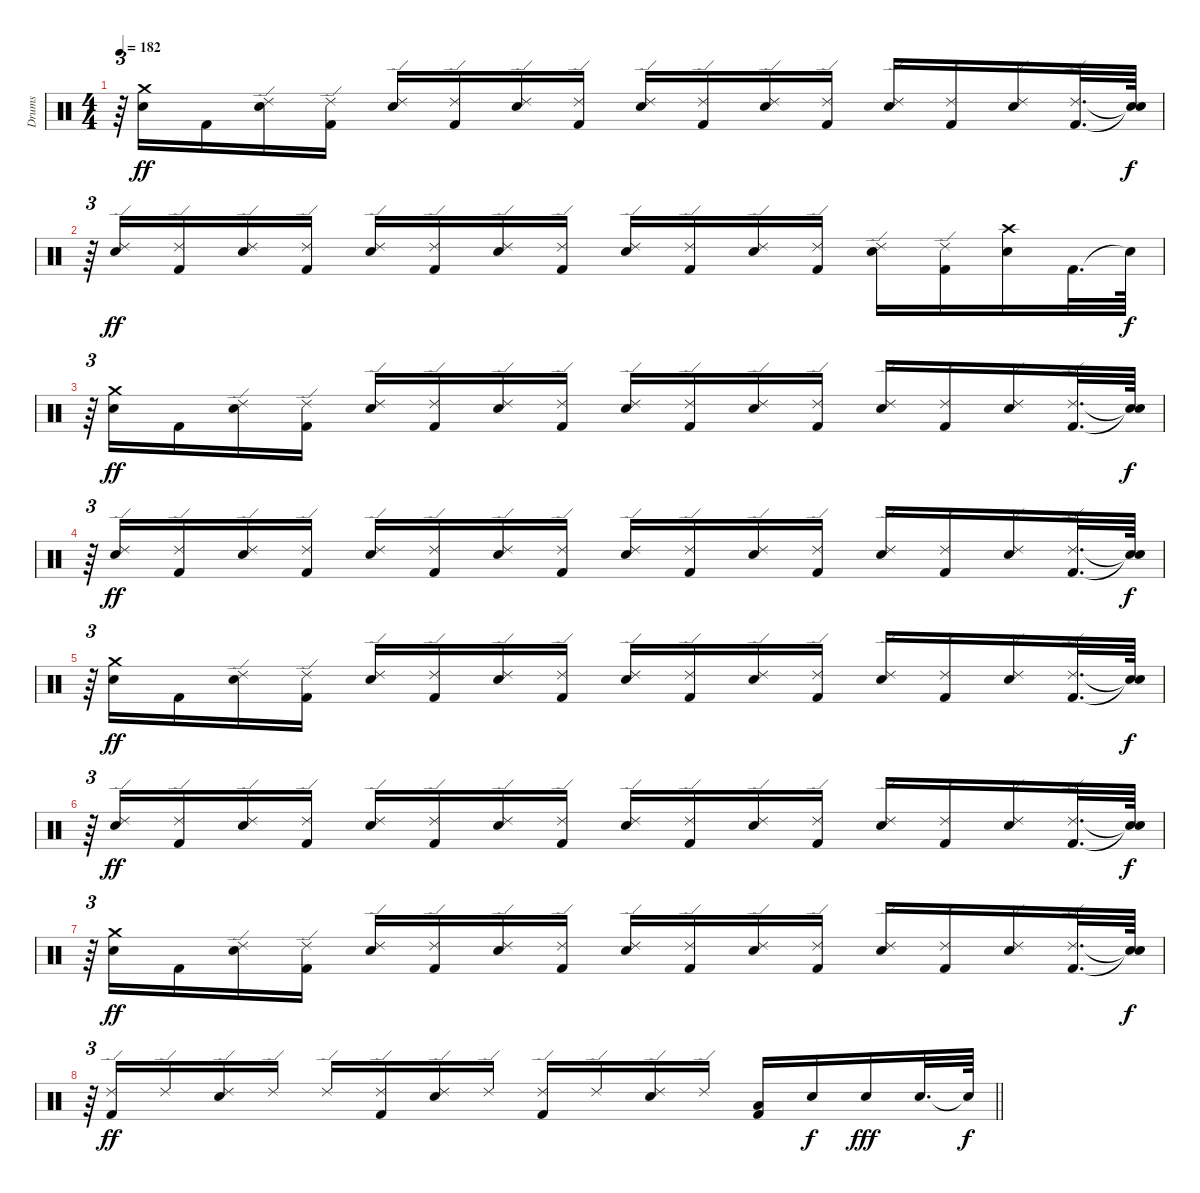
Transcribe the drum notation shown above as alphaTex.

\track ("Drums" "Drums") {instrument percussion}
\staff {score}
\articulation defaults
\ts (4 4)
\tempo 182
\clef neutral
\ks c
r.64{tu (3 2) dy f} ("Crash medium (hit)" "Snare (hit) 2").16{dy ff} "Kick (hit) 2".16 ("Snare (hit) 2" "Ride (edge) 2").16 ("Kick (hit) 2" "Ride (edge) 2").16 ("Snare (hit) 2" "Ride (edge) 2").16 ("Kick (hit) 2" "Ride (edge) 2").16 ("Snare (hit) 2" "Ride (edge) 2").16 ("Kick (hit) 2" "Ride (edge) 2").16 ("Snare (hit) 2" "Ride (edge) 2").16 ("Kick (hit) 2" "Ride (edge) 2").16 ("Snare (hit) 2" "Ride (edge) 2").16 ("Kick (hit) 2" "Ride (edge) 2").16 ("Snare (hit) 2" "Ride (edge) 2").16 ("Kick (hit) 2" "Ride (edge) 2").16 ("Snare (hit) 2" "Ride (edge) 2").16 ("Kick (hit) 2" "Ride (edge) 2").32{d} ("Snare (hit)"{t} "Snare (hit)"{t}).64{dy f} |
r.64{tu (3 2)} ("Snare (hit) 2" "Ride (edge) 2").16{dy ff} ("Kick (hit) 2" "Ride (edge) 2").16 ("Snare (hit) 2" "Ride (edge) 2").16 ("Kick (hit) 2" "Ride (edge) 2").16 ("Snare (hit) 2" "Ride (edge) 2").16 ("Kick (hit) 2" "Ride (edge) 2").16 ("Snare (hit) 2" "Ride (edge) 2").16 ("Kick (hit) 2" "Ride (edge) 2").16 ("Snare (hit) 2" "Ride (edge) 2").16 ("Kick (hit) 2" "Ride (edge) 2").16 ("Snare (hit) 2" "Ride (edge) 2").16 ("Kick (hit) 2" "Ride (edge) 2").16 ("Snare (hit) 2" "Ride (edge) 2").16 ("Kick (hit) 2" "Ride (edge) 2").16 ("Crash high (hit)" "Snare (hit) 2").16 "Kick (hit) 2".32{d} "Snare (hit)"{t}.64{dy f} |
r.64{tu (3 2)} ("Crash medium (hit)" "Snare (hit) 2").16{dy ff} "Kick (hit) 2".16 ("Snare (hit) 2" "Ride (edge) 2").16 ("Kick (hit) 2" "Ride (edge) 2").16 ("Snare (hit) 2" "Ride (edge) 2").16 ("Kick (hit) 2" "Ride (edge) 2").16 ("Snare (hit) 2" "Ride (edge) 2").16 ("Kick (hit) 2" "Ride (edge) 2").16 ("Snare (hit) 2" "Ride (edge) 2").16 ("Kick (hit) 2" "Ride (edge) 2").16 ("Snare (hit) 2" "Ride (edge) 2").16 ("Kick (hit) 2" "Ride (edge) 2").16 ("Snare (hit) 2" "Ride (edge) 2").16 ("Kick (hit) 2" "Ride (edge) 2").16 ("Snare (hit) 2" "Ride (edge) 2").16 ("Kick (hit) 2" "Ride (edge) 2").32{d} ("Snare (hit)"{t} "Snare (hit)"{t}).64{dy f} |
r.64{tu (3 2)} ("Snare (hit) 2" "Ride (edge) 2").16{dy ff} ("Kick (hit) 2" "Ride (edge) 2").16 ("Snare (hit) 2" "Ride (edge) 2").16 ("Kick (hit) 2" "Ride (edge) 2").16 ("Snare (hit) 2" "Ride (edge) 2").16 ("Kick (hit) 2" "Ride (edge) 2").16 ("Snare (hit) 2" "Ride (edge) 2").16 ("Kick (hit) 2" "Ride (edge) 2").16 ("Snare (hit) 2" "Ride (edge) 2").16 ("Kick (hit) 2" "Ride (edge) 2").16 ("Snare (hit) 2" "Ride (edge) 2").16 ("Kick (hit) 2" "Ride (edge) 2").16 ("Snare (hit) 2" "Ride (edge) 2").16 ("Kick (hit) 2" "Ride (edge) 2").16 ("Snare (hit) 2" "Ride (edge) 2").16 ("Kick (hit) 2" "Ride (edge) 2").32{d} ("Snare (hit)"{t} "Snare (hit)"{t}).64{dy f} |
r.64{tu (3 2)} ("Crash medium (hit)" "Snare (hit) 2").16{dy ff} "Kick (hit) 2".16 ("Snare (hit) 2" "Ride (edge) 2").16 ("Kick (hit) 2" "Ride (edge) 2").16 ("Snare (hit) 2" "Ride (edge) 2").16 ("Kick (hit) 2" "Ride (edge) 2").16 ("Snare (hit) 2" "Ride (edge) 2").16 ("Kick (hit) 2" "Ride (edge) 2").16 ("Snare (hit) 2" "Ride (edge) 2").16 ("Kick (hit) 2" "Ride (edge) 2").16 ("Snare (hit) 2" "Ride (edge) 2").16 ("Kick (hit) 2" "Ride (edge) 2").16 ("Snare (hit) 2" "Ride (edge) 2").16 ("Kick (hit) 2" "Ride (edge) 2").16 ("Snare (hit) 2" "Ride (edge) 2").16 ("Kick (hit) 2" "Ride (edge) 2").32{d} ("Snare (hit)"{t} "Snare (hit)"{t}).64{dy f} |
r.64{tu (3 2)} ("Snare (hit) 2" "Ride (edge) 2").16{dy ff} ("Kick (hit) 2" "Ride (edge) 2").16 ("Snare (hit) 2" "Ride (edge) 2").16 ("Kick (hit) 2" "Ride (edge) 2").16 ("Snare (hit) 2" "Ride (edge) 2").16 ("Kick (hit) 2" "Ride (edge) 2").16 ("Snare (hit) 2" "Ride (edge) 2").16 ("Kick (hit) 2" "Ride (edge) 2").16 ("Snare (hit) 2" "Ride (edge) 2").16 ("Kick (hit) 2" "Ride (edge) 2").16 ("Snare (hit) 2" "Ride (edge) 2").16 ("Kick (hit) 2" "Ride (edge) 2").16 ("Snare (hit) 2" "Ride (edge) 2").16 ("Kick (hit) 2" "Ride (edge) 2").16 ("Snare (hit) 2" "Ride (edge) 2").16 ("Kick (hit) 2" "Ride (edge) 2").32{d} ("Snare (hit)"{t} "Snare (hit)"{t}).64{dy f} |
r.64{tu (3 2)} ("Crash medium (hit)" "Snare (hit) 2").16{dy ff} "Kick (hit) 2".16 ("Snare (hit) 2" "Ride (edge) 2").16 ("Kick (hit) 2" "Ride (edge) 2").16 ("Snare (hit) 2" "Ride (edge) 2").16 ("Kick (hit) 2" "Ride (edge) 2").16 ("Snare (hit) 2" "Ride (edge) 2").16 ("Kick (hit) 2" "Ride (edge) 2").16 ("Snare (hit) 2" "Ride (edge) 2").16 ("Kick (hit) 2" "Ride (edge) 2").16 ("Snare (hit) 2" "Ride (edge) 2").16 ("Kick (hit) 2" "Ride (edge) 2").16 ("Snare (hit) 2" "Ride (edge) 2").16 ("Kick (hit) 2" "Ride (edge) 2").16 ("Snare (hit) 2" "Ride (edge) 2").16 ("Kick (hit) 2" "Ride (edge) 2").32{d} ("Snare (hit)"{t} "Snare (hit)"{t}).64{dy f} |
\barLineRight lightlight
r.64{tu (3 2)} ("Kick (hit) 2" "Ride (edge) 2").16{dy ff} "Ride (edge) 2".16 ("Snare (hit) 2" "Ride (edge) 2").16 "Ride (edge) 2".16 "Ride (edge) 2".16 ("Kick (hit) 2" "Ride (edge) 2").16 ("Snare (hit) 2" "Ride (edge) 2").16 "Ride (edge) 2".16 ("Kick (hit) 2" "Ride (edge) 2").16 "Ride (edge) 2".16 ("Snare (hit) 2" "Ride (edge) 2").16 "Ride (edge) 2".16 ("Kick (hit) 2" "Low Tom (hit)").16 "Snare (hit) 2".16{dy f} "Snare (hit) 2".16{dy fff} "Snare (hit) 2".32{d} "Snare (hit)"{t}.64{dy f}
